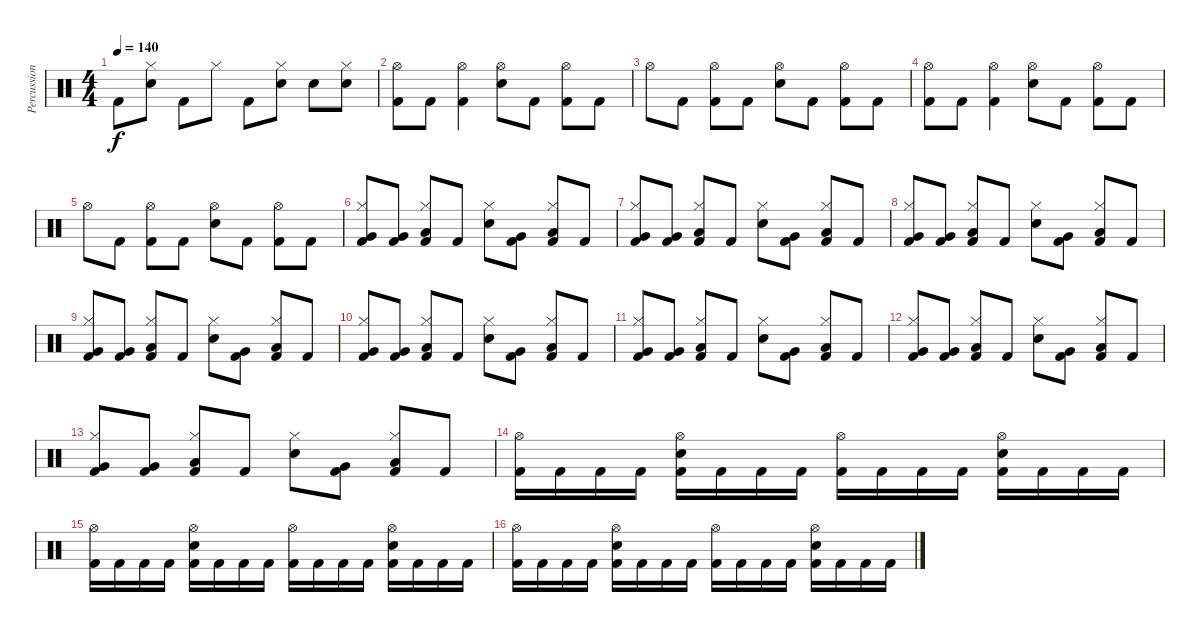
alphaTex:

\track ("Percussion" "Percussion") {instrument percussion}
\staff {score}
\articulation defaults
\ts (4 4)
\tempo 140
\clef neutral
\ks c "Kick (hit) 2".8{dy f}
("Electric Snare (hit)" "Hi-Hat (closed)").8 "Kick (hit) 2".8 "Hi-Hat (closed)".8 "Kick (hit) 2".8 ("Electric Snare (hit)" "Hi-Hat (closed)").8 "Electric Snare (hit)".8 ("Electric Snare (hit)" "Hi-Hat (closed)").8 |
("Kick (hit) 2" "Hi-Hat (open)").8 "Kick (hit) 2".8 ("Kick (hit) 2" "Hi-Hat (open)").4 ("Electric Snare (hit)" "Hi-Hat (open)").8 "Kick (hit) 2".8 ("Kick (hit) 2" "Hi-Hat (open)").8 "Kick (hit) 2".8 |
"Hi-Hat (open)".8 "Kick (hit) 2".8 ("Kick (hit) 2" "Hi-Hat (open)").8 "Kick (hit) 2".8 ("Electric Snare (hit)" "Hi-Hat (open)").8 "Kick (hit) 2".8 ("Kick (hit) 2" "Hi-Hat (open)").8 "Kick (hit) 2".8 |
("Kick (hit) 2" "Hi-Hat (open)").8 "Kick (hit) 2".8 ("Kick (hit) 2" "Hi-Hat (open)").4 ("Electric Snare (hit)" "Hi-Hat (open)").8 "Kick (hit) 2".8 ("Kick (hit) 2" "Hi-Hat (open)").8 "Kick (hit) 2".8 |
"Hi-Hat (open)".8 "Kick (hit) 2".8 ("Kick (hit) 2" "Hi-Hat (open)").8 "Kick (hit) 2".8 ("Electric Snare (hit)" "Hi-Hat (open)").8 "Kick (hit) 2".8 ("Kick (hit) 2" "Hi-Hat (open)").8 "Kick (hit) 2".8 |
("Very Low Tom (hit)" "Kick (hit) 2" "Hi-Hat (closed)").8 ("Very Low Tom (hit)" "Kick (hit) 2").8 ("Low Floor Tom (hit)" "Kick (hit) 2" "Hi-Hat (closed)").8 "Kick (hit) 2".8 ("Electric Snare (hit)" "Hi-Hat (closed)").8 ("Very Low Tom (hit)" "Kick (hit) 2").8 ("Low Floor Tom (hit)" "Kick (hit) 2" "Hi-Hat (closed)").8 "Kick (hit) 2".8 |
("Very Low Tom (hit)" "Kick (hit) 2" "Hi-Hat (closed)").8 ("Very Low Tom (hit)" "Kick (hit) 2").8 ("Low Floor Tom (hit)" "Kick (hit) 2" "Hi-Hat (closed)").8 "Kick (hit) 2".8 ("Electric Snare (hit)" "Hi-Hat (closed)").8 ("Very Low Tom (hit)" "Kick (hit) 2").8 ("Low Floor Tom (hit)" "Kick (hit) 2" "Hi-Hat (closed)").8 "Kick (hit) 2".8 |
("Very Low Tom (hit)" "Kick (hit) 2" "Hi-Hat (closed)").8 ("Very Low Tom (hit)" "Kick (hit) 2").8 ("Low Floor Tom (hit)" "Kick (hit) 2" "Hi-Hat (closed)").8 "Kick (hit) 2".8 ("Electric Snare (hit)" "Hi-Hat (closed)").8 ("Very Low Tom (hit)" "Kick (hit) 2").8 ("Low Floor Tom (hit)" "Kick (hit) 2" "Hi-Hat (closed)").8 "Kick (hit) 2".8 |
("Very Low Tom (hit)" "Kick (hit) 2" "Hi-Hat (closed)").8 ("Very Low Tom (hit)" "Kick (hit) 2").8 ("Low Floor Tom (hit)" "Kick (hit) 2" "Hi-Hat (closed)").8 "Kick (hit) 2".8 ("Electric Snare (hit)" "Hi-Hat (closed)").8 ("Very Low Tom (hit)" "Kick (hit) 2").8 ("Low Floor Tom (hit)" "Kick (hit) 2" "Hi-Hat (closed)").8 "Kick (hit) 2".8 |
("Very Low Tom (hit)" "Kick (hit) 2" "Hi-Hat (closed)").8 ("Very Low Tom (hit)" "Kick (hit) 2").8 ("Low Floor Tom (hit)" "Kick (hit) 2" "Hi-Hat (closed)").8 "Kick (hit) 2".8 ("Electric Snare (hit)" "Hi-Hat (closed)").8 ("Very Low Tom (hit)" "Kick (hit) 2").8 ("Low Floor Tom (hit)" "Kick (hit) 2" "Hi-Hat (closed)").8 "Kick (hit) 2".8 |
("Very Low Tom (hit)" "Kick (hit) 2" "Hi-Hat (closed)").8 ("Very Low Tom (hit)" "Kick (hit) 2").8 ("Low Floor Tom (hit)" "Kick (hit) 2" "Hi-Hat (closed)").8 "Kick (hit) 2".8 ("Electric Snare (hit)" "Hi-Hat (closed)").8 ("Very Low Tom (hit)" "Kick (hit) 2").8 ("Low Floor Tom (hit)" "Kick (hit) 2" "Hi-Hat (closed)").8 "Kick (hit) 2".8 |
("Very Low Tom (hit)" "Kick (hit) 2" "Hi-Hat (closed)").8 ("Very Low Tom (hit)" "Kick (hit) 2").8 ("Low Floor Tom (hit)" "Kick (hit) 2" "Hi-Hat (closed)").8 "Kick (hit) 2".8 ("Electric Snare (hit)" "Hi-Hat (closed)").8 ("Very Low Tom (hit)" "Kick (hit) 2").8 ("Low Floor Tom (hit)" "Kick (hit) 2" "Hi-Hat (closed)").8 "Kick (hit) 2".8 |
("Very Low Tom (hit)" "Kick (hit) 2" "Hi-Hat (closed)").8 ("Very Low Tom (hit)" "Kick (hit) 2").8 ("Low Floor Tom (hit)" "Kick (hit) 2" "Hi-Hat (closed)").8 "Kick (hit) 2".8 ("Electric Snare (hit)" "Hi-Hat (closed)").8 ("Very Low Tom (hit)" "Kick (hit) 2").8 ("Low Floor Tom (hit)" "Kick (hit) 2" "Hi-Hat (closed)").8 "Kick (hit) 2".8 |
("Kick (hit) 2" "Hi-Hat (open)").16 "Kick (hit) 2".16 "Kick (hit) 2".16 "Kick (hit) 2".16 ("Kick (hit) 2" "Electric Snare (hit)" "Hi-Hat (open)").16 "Kick (hit) 2".16 "Kick (hit) 2".16 "Kick (hit) 2".16 ("Kick (hit) 2" "Hi-Hat (open)").16 "Kick (hit) 2".16 "Kick (hit) 2".16 "Kick (hit) 2".16 ("Kick (hit) 2" "Electric Snare (hit)" "Hi-Hat (open)").16 "Kick (hit) 2".16 "Kick (hit) 2".16 "Kick (hit) 2".16 |
("Kick (hit) 2" "Hi-Hat (open)").16 "Kick (hit) 2".16 "Kick (hit) 2".16 "Kick (hit) 2".16 ("Kick (hit) 2" "Electric Snare (hit)" "Hi-Hat (open)").16 "Kick (hit) 2".16 "Kick (hit) 2".16 "Kick (hit) 2".16 ("Kick (hit) 2" "Hi-Hat (open)").16 "Kick (hit) 2".16 "Kick (hit) 2".16 "Kick (hit) 2".16 ("Kick (hit) 2" "Electric Snare (hit)" "Hi-Hat (open)").16 "Kick (hit) 2".16 "Kick (hit) 2".16 "Kick (hit) 2".16 |
("Kick (hit) 2" "Hi-Hat (open)").16 "Kick (hit) 2".16 "Kick (hit) 2".16 "Kick (hit) 2".16 ("Kick (hit) 2" "Electric Snare (hit)" "Hi-Hat (open)").16 "Kick (hit) 2".16 "Kick (hit) 2".16 "Kick (hit) 2".16 ("Kick (hit) 2" "Hi-Hat (open)").16 "Kick (hit) 2".16 "Kick (hit) 2".16 "Kick (hit) 2".16 ("Kick (hit) 2" "Electric Snare (hit)" "Hi-Hat (open)").16 "Kick (hit) 2".16 "Kick (hit) 2".16 "Kick (hit) 2".16
